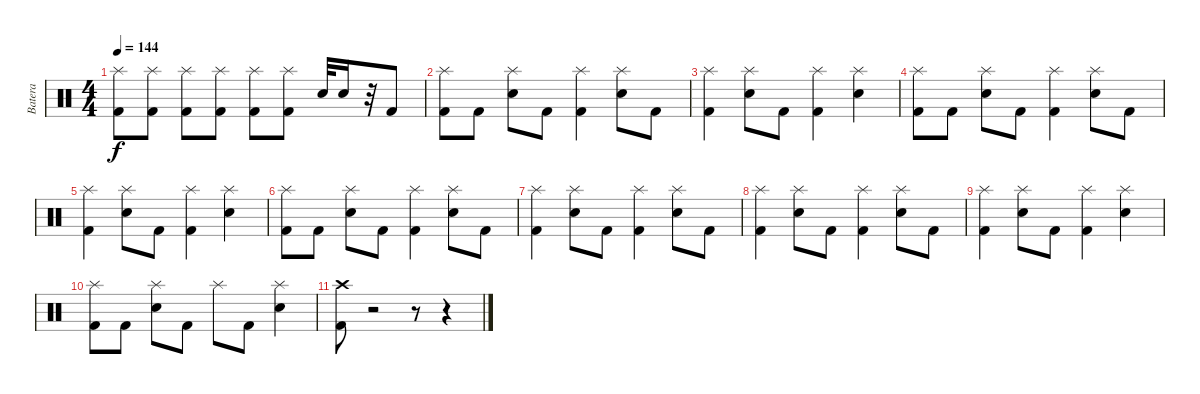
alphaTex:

\track ("Batera" "Batera") {instrument percussion}
\staff {score}
\articulation defaults
\ts (4 4)
\tempo 144
\clef neutral
\ks c
("Splash (hit)" "Kick (hit) 2").8{dy f} ("Splash (hit)" "Kick (hit) 2").8 ("Splash (hit)" "Kick (hit) 2").8 ("Splash (hit)" "Kick (hit) 2").8 ("Splash (hit)" "Kick (hit) 2").8 ("Splash (hit)" "Kick (hit) 2").8 "Snare (hit) 2".32 "Snare (hit) 2".16 r.32 "Kick (hit) 2".8 |
("Splash (hit)" "Kick (hit) 2").8 "Kick (hit) 2".8 ("Splash (hit)" "Snare (hit) 2").8 "Kick (hit) 2".8 ("Splash (hit)" "Kick (hit) 2").4 ("Splash (hit)" "Snare (hit) 2").8 "Kick (hit) 2".8 |
("Splash (hit)" "Kick (hit) 2").4 ("Splash (hit)" "Snare (hit) 2").8 "Kick (hit) 2".8 ("Splash (hit)" "Kick (hit) 2").4 ("Splash (hit)" "Snare (hit) 2").4 |
("Splash (hit)" "Kick (hit) 2").8 "Kick (hit) 2".8 ("Splash (hit)" "Snare (hit) 2").8 "Kick (hit) 2".8 ("Splash (hit)" "Kick (hit) 2").4 ("Splash (hit)" "Snare (hit) 2").8 "Kick (hit) 2".8 |
("Splash (hit)" "Kick (hit) 2").4 ("Splash (hit)" "Snare (hit) 2").8 "Kick (hit) 2".8 ("Splash (hit)" "Kick (hit) 2").4 ("Splash (hit)" "Snare (hit) 2").4 |
("Splash (hit)" "Kick (hit) 2").8 "Kick (hit) 2".8 ("Splash (hit)" "Snare (hit) 2").8 "Kick (hit) 2".8 ("Splash (hit)" "Kick (hit) 2").4 ("Splash (hit)" "Snare (hit) 2").8 "Kick (hit) 2".8 |
("Splash (hit)" "Kick (hit) 2").4 ("Splash (hit)" "Snare (hit) 2").8 "Kick (hit) 2".8 ("Splash (hit)" "Kick (hit) 2").4 ("Splash (hit)" "Snare (hit) 2").8 "Kick (hit) 2".8 |
("Splash (hit)" "Kick (hit) 2").4 ("Splash (hit)" "Snare (hit) 2").8 "Kick (hit) 2".8 ("Splash (hit)" "Kick (hit) 2").4 ("Splash (hit)" "Snare (hit) 2").8 "Kick (hit) 2".8 |
("Splash (hit)" "Kick (hit) 2").4 ("Splash (hit)" "Snare (hit) 2").8 "Kick (hit) 2".8 ("Splash (hit)" "Kick (hit) 2").4 ("Splash (hit)" "Snare (hit) 2").4 |
("Splash (hit)" "Kick (hit) 2").8 "Kick (hit) 2".8 ("Splash (hit)" "Snare (hit) 2").8 "Kick (hit) 2".8 "Splash (hit)".8 "Kick (hit) 2".8 ("Splash (hit)" "Snare (hit) 2").4 |
("Crash high (hit)" "Kick (hit) 2").8 r.2 r.8 r.4
